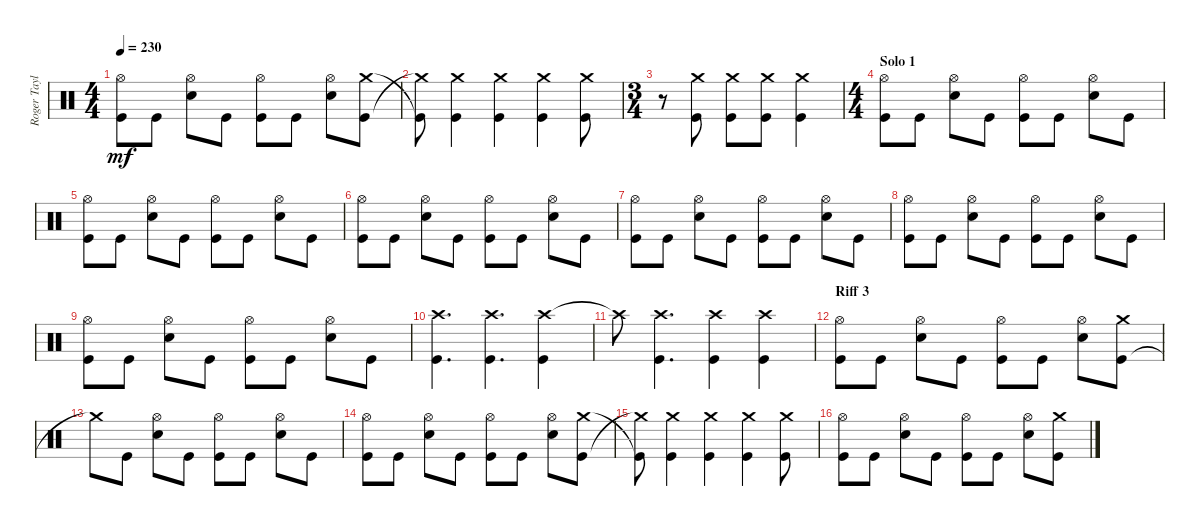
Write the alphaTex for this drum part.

\track ("Roger Taylor" "Roger Tayl") {instrument percussion}
\staff {score}
\articulation defaults
\ts (4 4)
\tempo 230
\clef neutral
\ks c
("Hi-Hat (open)" "Kick (hit)").8{dy mf} "Kick (hit)".8 ("Snare (hit) 2" "Hi-Hat (open)").8 "Kick (hit)".8 ("Kick (hit)" "Hi-Hat (open)").8 "Kick (hit)".8 ("Snare (hit) 2" "Hi-Hat (open)").8 ("Kick (hit)" "Crash medium (hit)").8 |
("Crash medium (hit)"{t} "Kick (hit)"{t}).8 ("Crash medium (hit)" "Kick (hit)").4 ("Crash medium (hit)" "Kick (hit)").4 ("Crash medium (hit)" "Kick (hit)").4 ("Crash medium (hit)" "Kick (hit)").8 |
\ts (3 4)
r.8 ("Crash medium (hit)" "Kick (hit)").8 ("Crash medium (hit)" "Kick (hit)").8 ("Crash medium (hit)" "Kick (hit)").8 ("Crash medium (hit)" "Kick (hit)").4 |
\ts (4 4)
\section ("" "Solo 1")
("Hi-Hat (open)" "Kick (hit)").8 "Kick (hit)".8 ("Snare (hit) 2" "Hi-Hat (open)").8 "Kick (hit)".8 ("Kick (hit)" "Hi-Hat (open)").8 "Kick (hit)".8 ("Snare (hit) 2" "Hi-Hat (open)").8 "Kick (hit)".8 |
("Hi-Hat (open)" "Kick (hit)").8 "Kick (hit)".8 ("Snare (hit) 2" "Hi-Hat (open)").8 "Kick (hit)".8 ("Kick (hit)" "Hi-Hat (open)").8 "Kick (hit)".8 ("Snare (hit) 2" "Hi-Hat (open)").8 "Kick (hit)".8 |
("Hi-Hat (open)" "Kick (hit)").8 "Kick (hit)".8 ("Snare (hit) 2" "Hi-Hat (open)").8 "Kick (hit)".8 ("Kick (hit)" "Hi-Hat (open)").8 "Kick (hit)".8 ("Snare (hit) 2" "Hi-Hat (open)").8 "Kick (hit)".8 |
("Hi-Hat (open)" "Kick (hit)").8 "Kick (hit)".8 ("Snare (hit) 2" "Hi-Hat (open)").8 "Kick (hit)".8 ("Kick (hit)" "Hi-Hat (open)").8 "Kick (hit)".8 ("Snare (hit) 2" "Hi-Hat (open)").8 "Kick (hit)".8 |
("Hi-Hat (open)" "Kick (hit)").8 "Kick (hit)".8 ("Snare (hit) 2" "Hi-Hat (open)").8 "Kick (hit)".8 ("Kick (hit)" "Hi-Hat (open)").8 "Kick (hit)".8 ("Snare (hit) 2" "Hi-Hat (open)").8 "Kick (hit)".8 |
("Hi-Hat (open)" "Kick (hit)").8 "Kick (hit)".8 ("Snare (hit) 2" "Hi-Hat (open)").8 "Kick (hit)".8 ("Kick (hit)" "Hi-Hat (open)").8 "Kick (hit)".8 ("Snare (hit) 2" "Hi-Hat (open)").8 "Kick (hit)".8 |
("Crash high (hit)" "Kick (hit)").4{d} ("Crash high (hit)" "Kick (hit)").4{d} ("Crash high (hit)" "Kick (hit)").4 |
"Crash high (hit)"{t}.8 ("Crash high (hit)" "Kick (hit)").4{d} ("Crash high (hit)" "Kick (hit)").4 ("Crash high (hit)" "Kick (hit)").4 |
\section ("" "Riff 3")
("Hi-Hat (open)" "Kick (hit)").8 "Kick (hit)".8 ("Hi-Hat (open)" "Snare (hit) 2").8 "Kick (hit)".8 ("Kick (hit)" "Hi-Hat (open)").8 "Kick (hit)".8 ("Hi-Hat (open)" "Snare (hit) 2").8 ("Kick (hit)" "Crash medium (hit)").8 |
"Crash medium (hit)"{t}.8 "Kick (hit)".8 ("Snare (hit) 2" "Hi-Hat (open)").8 "Kick (hit)".8 ("Kick (hit)" "Hi-Hat (open)").8 "Kick (hit)".8 ("Snare (hit) 2" "Hi-Hat (open)").8 "Kick (hit)".8 |
("Hi-Hat (open)" "Kick (hit)").8 "Kick (hit)".8 ("Snare (hit) 2" "Hi-Hat (open)").8 "Kick (hit)".8 ("Kick (hit)" "Hi-Hat (open)").8 "Kick (hit)".8 ("Snare (hit) 2" "Hi-Hat (open)").8 ("Kick (hit)" "Crash medium (hit)").8 |
("Crash medium (hit)"{t} "Kick (hit)"{t}).8 ("Crash medium (hit)" "Kick (hit)").4 ("Crash medium (hit)" "Kick (hit)").4 ("Crash medium (hit)" "Kick (hit)").4 ("Crash medium (hit)" "Kick (hit)").8 |
("Hi-Hat (open)" "Kick (hit)").8 "Kick (hit)".8 ("Hi-Hat (open)" "Snare (hit) 2").8 "Kick (hit)".8 ("Kick (hit)" "Hi-Hat (open)").8 "Kick (hit)".8 ("Hi-Hat (open)" "Snare (hit) 2").8 ("Kick (hit)" "Crash medium (hit)").8
